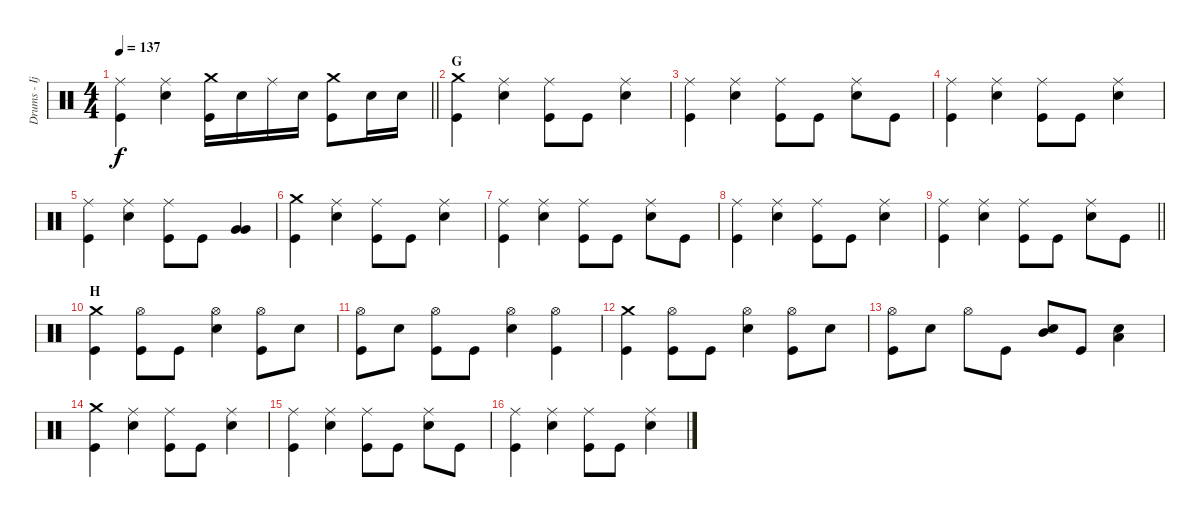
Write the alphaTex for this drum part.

\track ("Drums - Ijichi" "Drums - Ij") {instrument percussion}
\staff {score}
\articulation defaults
\ts (4 4)
\tempo 137
\clef neutral
\barLineRight lightlight
\ks c
("Ride (middle)" "Kick (hit)").4{dy f} ("Ride (middle)" "Electric Snare (hit)").4 ("Crash medium (hit)" "Kick (hit)").16 "Electric Snare (hit)".16 "Ride (middle)".16 "Electric Snare (hit)".16 ("Crash medium (hit)" "Kick (hit)").8 "Electric Snare (hit)".16 "Electric Snare (hit)".16 |
\section ("" "G")
("Crash medium (hit)" "Kick (hit)").4 ("Ride (middle)" "Electric Snare (hit)").4 ("Ride (middle)" "Kick (hit)").8 "Kick (hit)".8 ("Ride (middle)" "Electric Snare (hit)").4 |
("Ride (middle)" "Kick (hit)").4 ("Ride (middle)" "Electric Snare (hit)").4 ("Ride (middle)" "Kick (hit)").8 "Kick (hit)".8 ("Ride (middle)" "Electric Snare (hit)").8 "Kick (hit)".8 |
("Ride (middle)" "Kick (hit)").4 ("Ride (middle)" "Electric Snare (hit)").4 ("Ride (middle)" "Kick (hit)").8 "Kick (hit)".8 ("Ride (middle)" "Electric Snare (hit)").4 |
("Ride (middle)" "Kick (hit)").4 ("Ride (middle)" "Electric Snare (hit)").4 ("Ride (middle)" "Kick (hit)").8 "Kick (hit)".8 ("Very Low Tom (hit)" "Very Low Tom (hit)").4 |
("Crash medium (hit)" "Kick (hit)").4 ("Ride (middle)" "Electric Snare (hit)").4 ("Ride (middle)" "Kick (hit)").8 "Kick (hit)".8 ("Ride (middle)" "Electric Snare (hit)").4 |
("Ride (middle)" "Kick (hit)").4 ("Ride (middle)" "Electric Snare (hit)").4 ("Ride (middle)" "Kick (hit)").8 "Kick (hit)".8 ("Ride (middle)" "Electric Snare (hit)").8 "Kick (hit)".8 |
("Ride (middle)" "Kick (hit)").4 ("Ride (middle)" "Electric Snare (hit)").4 ("Ride (middle)" "Kick (hit)").8 "Kick (hit)".8 ("Ride (middle)" "Electric Snare (hit)").4 |
\barLineRight lightlight
("Ride (middle)" "Kick (hit)").4 ("Ride (middle)" "Electric Snare (hit)").4 ("Ride (middle)" "Kick (hit)").8 "Kick (hit)".8 ("Ride (middle)" "Electric Snare (hit)").8 "Kick (hit)".8 |
\section ("" "H")
("Crash medium (hit)" "Kick (hit)").4 ("Hi-Hat (open)" "Kick (hit)").8 "Kick (hit)".8 ("Hi-Hat (open)" "Electric Snare (hit)").4 ("Hi-Hat (open)" "Kick (hit)").8 "Electric Snare (hit)".8 |
("Hi-Hat (open)" "Kick (hit)").8 "Electric Snare (hit)".8 ("Hi-Hat (open)" "Kick (hit)").8 "Kick (hit)".8 ("Hi-Hat (open)" "Electric Snare (hit)").4 ("Hi-Hat (open)" "Kick (hit)").4 |
("Crash medium (hit)" "Kick (hit)").4 ("Hi-Hat (open)" "Kick (hit)").8 "Kick (hit)".8 ("Hi-Hat (open)" "Electric Snare (hit)").4 ("Hi-Hat (open)" "Kick (hit)").8 "Electric Snare (hit)".8 |
("Hi-Hat (open)" "Kick (hit)").8 "Electric Snare (hit)".8 "Hi-Hat (open)".8 "Kick (hit)".8 ("Electric Snare (hit)" "Mid Tom (hit)").8 "Kick (hit)".8 ("Electric Snare (hit)" "Low Tom (hit)").4 |
("Crash medium (hit)" "Kick (hit)").4 ("Ride (middle)" "Electric Snare (hit)").4 ("Ride (middle)" "Kick (hit)").8 "Kick (hit)".8 ("Ride (middle)" "Electric Snare (hit)").4 |
("Ride (middle)" "Kick (hit)").4 ("Ride (middle)" "Electric Snare (hit)").4 ("Ride (middle)" "Kick (hit)").8 "Kick (hit)".8 ("Ride (middle)" "Electric Snare (hit)").8 "Kick (hit)".8 |
("Ride (middle)" "Kick (hit)").4 ("Ride (middle)" "Electric Snare (hit)").4 ("Ride (middle)" "Kick (hit)").8 "Kick (hit)".8 ("Ride (middle)" "Electric Snare (hit)").4
